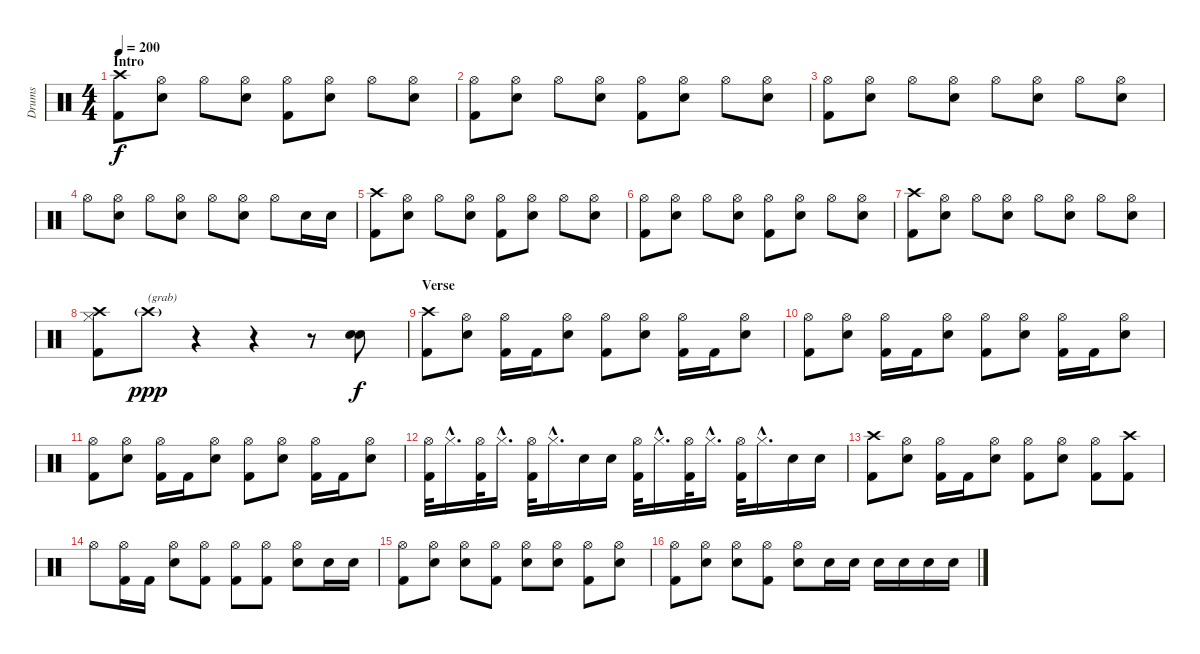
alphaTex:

\track ("Drums" "Drums") {instrument percussion}
\staff {score}
\articulation defaults
\ts (4 4)
\section ("" "Intro")
\tempo 200
\clef neutral
\ks c
("Crash high (hit)" "Kick (hit) 2").8{dy f} ("Hi-Hat (open)" "Electric Snare (hit)").8 "Hi-Hat (open)".8 ("Hi-Hat (open)" "Electric Snare (hit)").8 ("Hi-Hat (open)" "Kick (hit) 2").8 ("Hi-Hat (open)" "Electric Snare (hit)").8 "Hi-Hat (open)".8 ("Hi-Hat (open)" "Electric Snare (hit)").8 |
("Hi-Hat (open)" "Kick (hit) 2").8 ("Hi-Hat (open)" "Electric Snare (hit)").8 "Hi-Hat (open)".8 ("Hi-Hat (open)" "Electric Snare (hit)").8 ("Hi-Hat (open)" "Kick (hit) 2").8 ("Hi-Hat (open)" "Electric Snare (hit)").8 "Hi-Hat (open)".8 ("Hi-Hat (open)" "Electric Snare (hit)").8 |
("Hi-Hat (open)" "Kick (hit) 2").8 ("Hi-Hat (open)" "Electric Snare (hit)").8 "Hi-Hat (open)".8 ("Hi-Hat (open)" "Electric Snare (hit)").8 "Hi-Hat (open)".8 ("Hi-Hat (open)" "Electric Snare (hit)").8 "Hi-Hat (open)".8 ("Hi-Hat (open)" "Electric Snare (hit)").8 |
"Hi-Hat (open)".8 ("Hi-Hat (open)" "Electric Snare (hit)").8 "Hi-Hat (open)".8 ("Hi-Hat (open)" "Electric Snare (hit)").8 "Hi-Hat (open)".8 ("Hi-Hat (open)" "Electric Snare (hit)").8 "Hi-Hat (open)".8 "Electric Snare (hit)".16 "Electric Snare (hit)".16 |
("Crash high (hit)" "Kick (hit) 2").8 ("Hi-Hat (open)" "Electric Snare (hit)").8 "Hi-Hat (open)".8 ("Hi-Hat (open)" "Electric Snare (hit)").8 ("Hi-Hat (open)" "Kick (hit) 2").8 ("Hi-Hat (open)" "Electric Snare (hit)").8 "Hi-Hat (open)".8 ("Hi-Hat (open)" "Electric Snare (hit)").8 |
("Hi-Hat (open)" "Kick (hit) 2").8 ("Hi-Hat (open)" "Electric Snare (hit)").8 "Hi-Hat (open)".8 ("Hi-Hat (open)" "Electric Snare (hit)").8 ("Hi-Hat (open)" "Kick (hit) 2").8 ("Hi-Hat (open)" "Electric Snare (hit)").8 "Hi-Hat (open)".8 ("Hi-Hat (open)" "Electric Snare (hit)").8 |
("Crash high (hit)" "Kick (hit) 2").8 ("Hi-Hat (open)" "Electric Snare (hit)").8 "Hi-Hat (open)".8 ("Hi-Hat (open)" "Electric Snare (hit)").8 "Hi-Hat (open)".8 ("Hi-Hat (open)" "Electric Snare (hit)").8 "Hi-Hat (open)".8 ("Hi-Hat (open)" "Electric Snare (hit)").8 |
("Hi-Hat (closed)" "Crash high (hit)" "Kick (hit) 2").8 "Crash high (hit)"{g}.8{txt "(grab)" dy ppp} r.4 r.4 r.8 ("Electric Snare (hit)" "Electric Snare (hit)").8{dy f} |
\section ("" "Verse")
("Crash high (hit)" "Kick (hit) 2").8 ("Hi-Hat (open)" "Electric Snare (hit)").8 ("Hi-Hat (open)" "Kick (hit) 2").16 "Kick (hit) 2".16 ("Hi-Hat (open)" "Electric Snare (hit)").8 ("Hi-Hat (open)" "Kick (hit) 2").8 ("Hi-Hat (open)" "Electric Snare (hit)").8 ("Hi-Hat (open)" "Kick (hit) 2").16 "Kick (hit) 2".16 ("Hi-Hat (open)" "Electric Snare (hit)").8 |
("Hi-Hat (open)" "Kick (hit) 2").8 ("Hi-Hat (open)" "Electric Snare (hit)").8 ("Hi-Hat (open)" "Kick (hit) 2").16 "Kick (hit) 2".16 ("Hi-Hat (open)" "Electric Snare (hit)").8 ("Hi-Hat (open)" "Kick (hit) 2").8 ("Hi-Hat (open)" "Electric Snare (hit)").8 ("Hi-Hat (open)" "Kick (hit) 2").16 "Kick (hit) 2".16 ("Hi-Hat (open)" "Electric Snare (hit)").8 |
("Hi-Hat (open)" "Kick (hit) 2").8 ("Hi-Hat (open)" "Electric Snare (hit)").8 ("Hi-Hat (open)" "Kick (hit) 2").16 "Kick (hit) 2".16 ("Hi-Hat (open)" "Electric Snare (hit)").8 ("Hi-Hat (open)" "Kick (hit) 2").8 ("Hi-Hat (open)" "Electric Snare (hit)").8 ("Hi-Hat (open)" "Kick (hit) 2").16 "Kick (hit) 2".16 ("Hi-Hat (open)" "Electric Snare (hit)").8 |
("Hi-Hat (open)" "Kick (hit) 2").32 "Hi-Hat (closed)"{hac}.16{d} ("Hi-Hat (open)" "Kick (hit) 2").32 "Hi-Hat (closed)"{hac}.16{d} ("Hi-Hat (open)" "Kick (hit) 2").32 "Hi-Hat (closed)"{hac}.16{d} "Electric Snare (hit)".16 "Electric Snare (hit)".16 ("Hi-Hat (open)" "Kick (hit) 2").32 "Hi-Hat (closed)"{hac}.16{d} ("Hi-Hat (open)" "Kick (hit) 2").32 "Hi-Hat (closed)"{hac}.16{d} ("Hi-Hat (open)" "Kick (hit) 2").32 "Hi-Hat (closed)"{hac}.16{d} "Electric Snare (hit)".16 "Electric Snare (hit)".16 |
("Crash high (hit)" "Kick (hit) 2").8 ("Hi-Hat (open)" "Electric Snare (hit)").8 ("Hi-Hat (open)" "Kick (hit) 2").16 "Kick (hit) 2".16 ("Hi-Hat (open)" "Electric Snare (hit)").8 ("Hi-Hat (open)" "Kick (hit) 2").8 ("Hi-Hat (open)" "Electric Snare (hit)").8 ("Hi-Hat (open)" "Kick (hit) 2").8 ("Crash high (hit)" "Kick (hit) 2").8 |
"Hi-Hat (open)".8 ("Hi-Hat (open)" "Kick (hit) 2").16 "Kick (hit) 2".16 ("Hi-Hat (open)" "Electric Snare (hit)").8 ("Hi-Hat (open)" "Kick (hit) 2").8 ("Hi-Hat (open)" "Kick (hit) 2").8 ("Hi-Hat (open)" "Kick (hit) 2").8 ("Hi-Hat (open)" "Electric Snare (hit)").8 "Electric Snare (hit)".16 "Electric Snare (hit)".16 |
("Hi-Hat (open)" "Kick (hit) 2").8 ("Hi-Hat (open)" "Electric Snare (hit)").8 ("Hi-Hat (open)" "Electric Snare (hit)").8 ("Hi-Hat (open)" "Kick (hit) 2").8 ("Hi-Hat (open)" "Electric Snare (hit)").8 ("Hi-Hat (open)" "Electric Snare (hit)").8 ("Hi-Hat (open)" "Kick (hit) 2").8 ("Hi-Hat (open)" "Electric Snare (hit)").8 |
("Hi-Hat (open)" "Kick (hit) 2").8 ("Hi-Hat (open)" "Electric Snare (hit)").8 ("Hi-Hat (open)" "Electric Snare (hit)").8 ("Hi-Hat (open)" "Kick (hit) 2").8 ("Hi-Hat (open)" "Electric Snare (hit)").8 "Electric Snare (hit)".16 "Electric Snare (hit)".16 "Electric Snare (hit)".16 "Electric Snare (hit)".16 "Electric Snare (hit)".16 "Electric Snare (hit)".16
